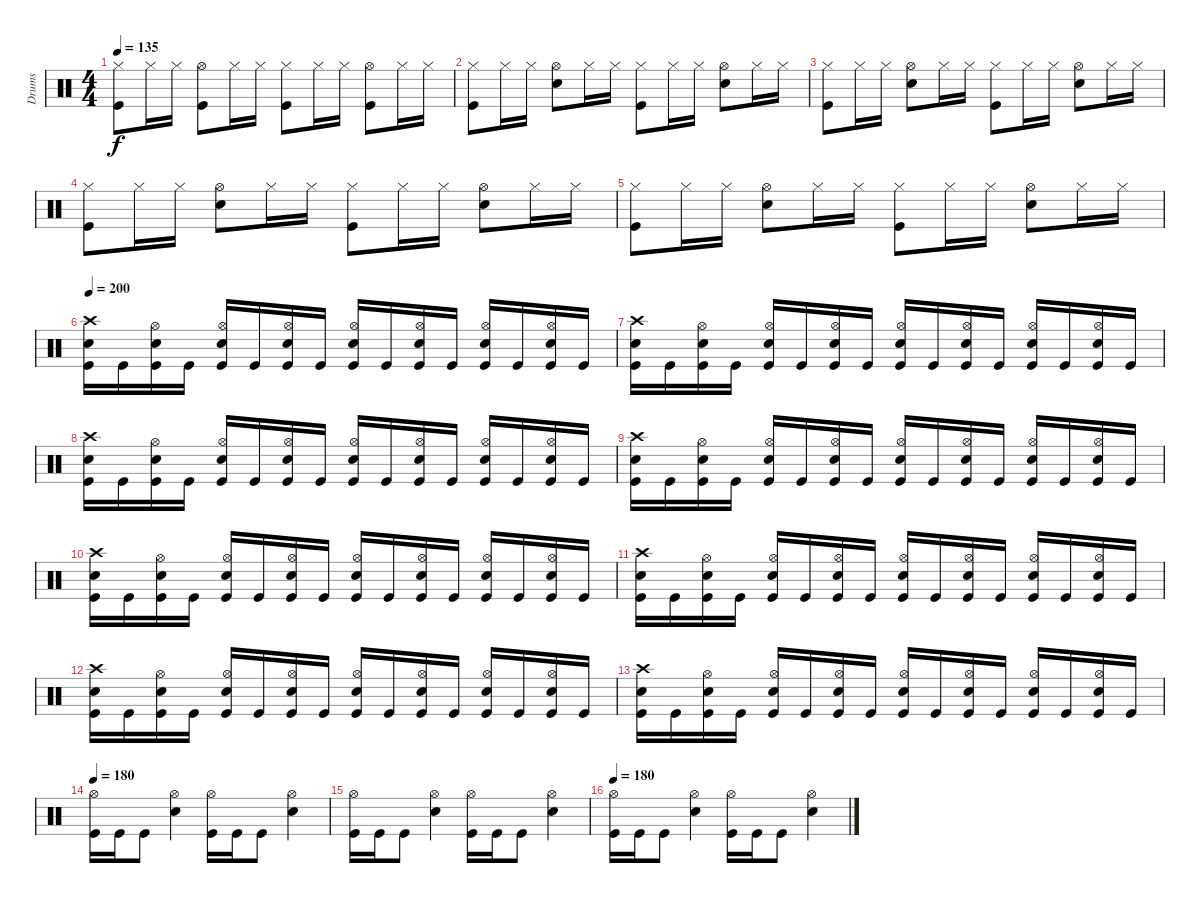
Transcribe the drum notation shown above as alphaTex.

\track ("Drums" "Drums") {instrument percussion}
\staff {score}
\articulation defaults
\ts (4 4)
\tempo 135
\clef neutral
\ks c
("Hi-Hat (closed)" "Kick (hit)").8{dy f} "Hi-Hat (closed)".16 "Hi-Hat (closed)".16 ("Hi-Hat (open)" "Kick (hit)").8 "Hi-Hat (closed)".16 "Hi-Hat (closed)".16 ("Hi-Hat (closed)" "Kick (hit)").8 "Hi-Hat (closed)".16 "Hi-Hat (closed)".16 ("Hi-Hat (open)" "Kick (hit)").8 "Hi-Hat (closed)".16 "Hi-Hat (closed)".16 |
("Hi-Hat (closed)" "Kick (hit)").8 "Hi-Hat (closed)".16 "Hi-Hat (closed)".16 ("Hi-Hat (open)" "Electric Snare (hit)").8 "Hi-Hat (closed)".16 "Hi-Hat (closed)".16 ("Hi-Hat (closed)" "Kick (hit)").8 "Hi-Hat (closed)".16 "Hi-Hat (closed)".16 ("Hi-Hat (open)" "Electric Snare (hit)").8 "Hi-Hat (closed)".16 "Hi-Hat (closed)".16 |
("Hi-Hat (closed)" "Kick (hit)").8 "Hi-Hat (closed)".16 "Hi-Hat (closed)".16 ("Hi-Hat (open)" "Electric Snare (hit)").8 "Hi-Hat (closed)".16 "Hi-Hat (closed)".16 ("Hi-Hat (closed)" "Kick (hit)").8 "Hi-Hat (closed)".16 "Hi-Hat (closed)".16 ("Hi-Hat (open)" "Electric Snare (hit)").8 "Hi-Hat (closed)".16 "Hi-Hat (closed)".16 |
("Hi-Hat (closed)" "Kick (hit)").8 "Hi-Hat (closed)".16 "Hi-Hat (closed)".16 ("Hi-Hat (open)" "Electric Snare (hit)").8 "Hi-Hat (closed)".16 "Hi-Hat (closed)".16 ("Hi-Hat (closed)" "Kick (hit)").8 "Hi-Hat (closed)".16 "Hi-Hat (closed)".16 ("Hi-Hat (open)" "Electric Snare (hit)").8 "Hi-Hat (closed)".16 "Hi-Hat (closed)".16 |
("Hi-Hat (closed)" "Kick (hit)").8 "Hi-Hat (closed)".16 "Hi-Hat (closed)".16 ("Hi-Hat (open)" "Electric Snare (hit)").8 "Hi-Hat (closed)".16 "Hi-Hat (closed)".16 ("Hi-Hat (closed)" "Kick (hit)").8 "Hi-Hat (closed)".16 "Hi-Hat (closed)".16 ("Hi-Hat (open)" "Electric Snare (hit)").8 "Hi-Hat (closed)".16 "Hi-Hat (closed)".16 |
\tempo 200
("Crash high (hit)" "Electric Snare (hit)" "Kick (hit)").16 "Kick (hit)".16 ("Hi-Hat (open)" "Electric Snare (hit)" "Kick (hit)").16 "Kick (hit)".16 ("Hi-Hat (open)" "Electric Snare (hit)" "Kick (hit)").16 "Kick (hit)".16 ("Hi-Hat (open)" "Electric Snare (hit)" "Kick (hit)").16 "Kick (hit)".16 ("Hi-Hat (open)" "Electric Snare (hit)" "Kick (hit)").16 "Kick (hit)".16 ("Hi-Hat (open)" "Electric Snare (hit)" "Kick (hit)").16 "Kick (hit)".16 ("Hi-Hat (open)" "Electric Snare (hit)" "Kick (hit)").16 "Kick (hit)".16 ("Hi-Hat (open)" "Electric Snare (hit)" "Kick (hit)").16 "Kick (hit)".16 |
("Crash high (hit)" "Electric Snare (hit)" "Kick (hit)").16 "Kick (hit)".16 ("Hi-Hat (open)" "Electric Snare (hit)" "Kick (hit)").16 "Kick (hit)".16 ("Hi-Hat (open)" "Electric Snare (hit)" "Kick (hit)").16 "Kick (hit)".16 ("Hi-Hat (open)" "Electric Snare (hit)" "Kick (hit)").16 "Kick (hit)".16 ("Hi-Hat (open)" "Electric Snare (hit)" "Kick (hit)").16 "Kick (hit)".16 ("Hi-Hat (open)" "Electric Snare (hit)" "Kick (hit)").16 "Kick (hit)".16 ("Hi-Hat (open)" "Electric Snare (hit)" "Kick (hit)").16 "Kick (hit)".16 ("Hi-Hat (open)" "Electric Snare (hit)" "Kick (hit)").16 "Kick (hit)".16 |
("Crash high (hit)" "Electric Snare (hit)" "Kick (hit)").16 "Kick (hit)".16 ("Hi-Hat (open)" "Electric Snare (hit)" "Kick (hit)").16 "Kick (hit)".16 ("Hi-Hat (open)" "Electric Snare (hit)" "Kick (hit)").16 "Kick (hit)".16 ("Hi-Hat (open)" "Electric Snare (hit)" "Kick (hit)").16 "Kick (hit)".16 ("Hi-Hat (open)" "Electric Snare (hit)" "Kick (hit)").16 "Kick (hit)".16 ("Hi-Hat (open)" "Electric Snare (hit)" "Kick (hit)").16 "Kick (hit)".16 ("Hi-Hat (open)" "Electric Snare (hit)" "Kick (hit)").16 "Kick (hit)".16 ("Hi-Hat (open)" "Electric Snare (hit)" "Kick (hit)").16 "Kick (hit)".16 |
("Crash high (hit)" "Electric Snare (hit)" "Kick (hit)").16 "Kick (hit)".16 ("Hi-Hat (open)" "Electric Snare (hit)" "Kick (hit)").16 "Kick (hit)".16 ("Hi-Hat (open)" "Electric Snare (hit)" "Kick (hit)").16 "Kick (hit)".16 ("Hi-Hat (open)" "Electric Snare (hit)" "Kick (hit)").16 "Kick (hit)".16 ("Hi-Hat (open)" "Electric Snare (hit)" "Kick (hit)").16 "Kick (hit)".16 ("Hi-Hat (open)" "Electric Snare (hit)" "Kick (hit)").16 "Kick (hit)".16 ("Hi-Hat (open)" "Electric Snare (hit)" "Kick (hit)").16 "Kick (hit)".16 ("Hi-Hat (open)" "Electric Snare (hit)" "Kick (hit)").16 "Kick (hit)".16 |
("Crash high (hit)" "Electric Snare (hit)" "Kick (hit)").16 "Kick (hit)".16 ("Hi-Hat (open)" "Electric Snare (hit)" "Kick (hit)").16 "Kick (hit)".16 ("Hi-Hat (open)" "Electric Snare (hit)" "Kick (hit)").16 "Kick (hit)".16 ("Hi-Hat (open)" "Electric Snare (hit)" "Kick (hit)").16 "Kick (hit)".16 ("Hi-Hat (open)" "Electric Snare (hit)" "Kick (hit)").16 "Kick (hit)".16 ("Hi-Hat (open)" "Electric Snare (hit)" "Kick (hit)").16 "Kick (hit)".16 ("Hi-Hat (open)" "Electric Snare (hit)" "Kick (hit)").16 "Kick (hit)".16 ("Hi-Hat (open)" "Electric Snare (hit)" "Kick (hit)").16 "Kick (hit)".16 |
("Crash high (hit)" "Electric Snare (hit)" "Kick (hit)").16 "Kick (hit)".16 ("Hi-Hat (open)" "Electric Snare (hit)" "Kick (hit)").16 "Kick (hit)".16 ("Hi-Hat (open)" "Electric Snare (hit)" "Kick (hit)").16 "Kick (hit)".16 ("Hi-Hat (open)" "Electric Snare (hit)" "Kick (hit)").16 "Kick (hit)".16 ("Hi-Hat (open)" "Electric Snare (hit)" "Kick (hit)").16 "Kick (hit)".16 ("Hi-Hat (open)" "Electric Snare (hit)" "Kick (hit)").16 "Kick (hit)".16 ("Hi-Hat (open)" "Electric Snare (hit)" "Kick (hit)").16 "Kick (hit)".16 ("Hi-Hat (open)" "Electric Snare (hit)" "Kick (hit)").16 "Kick (hit)".16 |
("Crash high (hit)" "Electric Snare (hit)" "Kick (hit)").16 "Kick (hit)".16 ("Hi-Hat (open)" "Electric Snare (hit)" "Kick (hit)").16 "Kick (hit)".16 ("Hi-Hat (open)" "Electric Snare (hit)" "Kick (hit)").16 "Kick (hit)".16 ("Hi-Hat (open)" "Electric Snare (hit)" "Kick (hit)").16 "Kick (hit)".16 ("Hi-Hat (open)" "Electric Snare (hit)" "Kick (hit)").16 "Kick (hit)".16 ("Hi-Hat (open)" "Electric Snare (hit)" "Kick (hit)").16 "Kick (hit)".16 ("Hi-Hat (open)" "Electric Snare (hit)" "Kick (hit)").16 "Kick (hit)".16 ("Hi-Hat (open)" "Electric Snare (hit)" "Kick (hit)").16 "Kick (hit)".16 |
("Crash high (hit)" "Electric Snare (hit)" "Kick (hit)").16 "Kick (hit)".16 ("Hi-Hat (open)" "Electric Snare (hit)" "Kick (hit)").16 "Kick (hit)".16 ("Hi-Hat (open)" "Electric Snare (hit)" "Kick (hit)").16 "Kick (hit)".16 ("Hi-Hat (open)" "Electric Snare (hit)" "Kick (hit)").16 "Kick (hit)".16 ("Hi-Hat (open)" "Electric Snare (hit)" "Kick (hit)").16 "Kick (hit)".16 ("Hi-Hat (open)" "Electric Snare (hit)" "Kick (hit)").16 "Kick (hit)".16 ("Hi-Hat (open)" "Electric Snare (hit)" "Kick (hit)").16 "Kick (hit)".16 ("Hi-Hat (open)" "Electric Snare (hit)" "Kick (hit)").16 "Kick (hit)".16 |
\tempo 180
("Hi-Hat (open)" "Kick (hit)").16 "Kick (hit)".16 "Kick (hit)".8 ("Hi-Hat (open)" "Electric Snare (hit)").4 ("Hi-Hat (open)" "Kick (hit)").16 "Kick (hit)".16 "Kick (hit)".8 ("Hi-Hat (open)" "Electric Snare (hit)").4 |
("Hi-Hat (open)" "Kick (hit)").16 "Kick (hit)".16 "Kick (hit)".8 ("Hi-Hat (open)" "Electric Snare (hit)").4 ("Hi-Hat (open)" "Kick (hit)").16 "Kick (hit)".16 "Kick (hit)".8 ("Hi-Hat (open)" "Electric Snare (hit)").4 |
\tempo 180
("Hi-Hat (open)" "Kick (hit)").16 "Kick (hit)".16 "Kick (hit)".8 ("Hi-Hat (open)" "Electric Snare (hit)").4 ("Hi-Hat (open)" "Kick (hit)").16 "Kick (hit)".16 "Kick (hit)".8 ("Hi-Hat (open)" "Electric Snare (hit)").4
